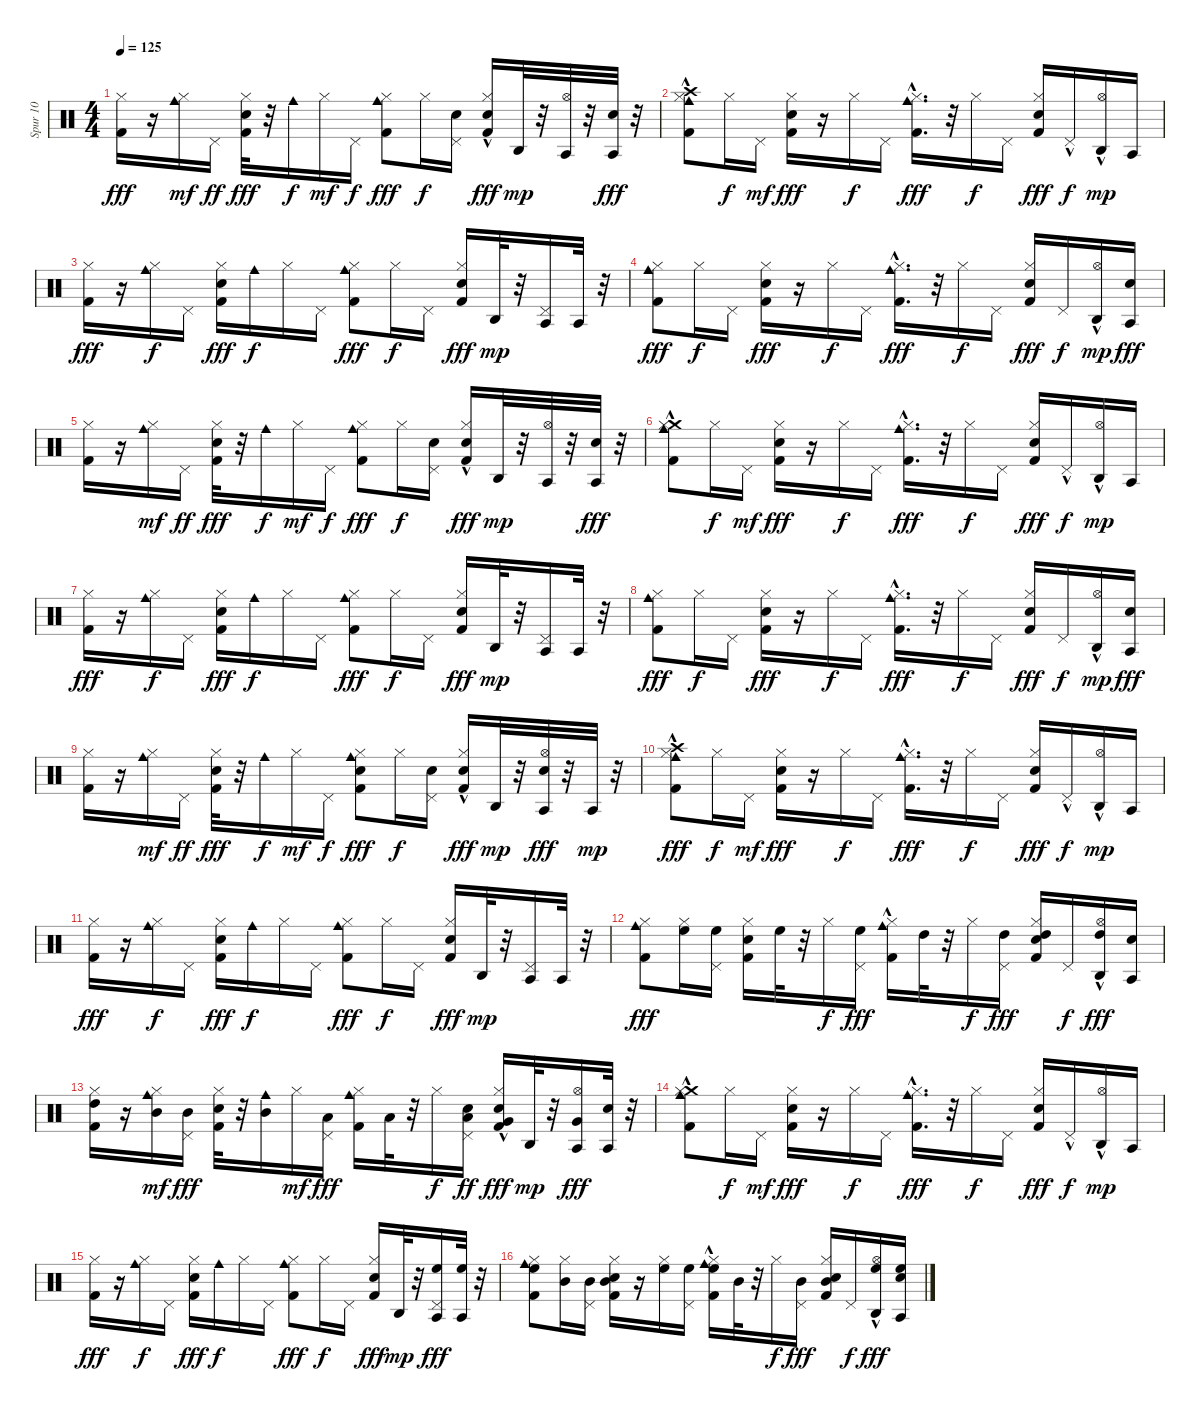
\track ("Spur 10" "Spur 10") {instrument percussion}
\staff {score}
\articulation defaults
\ts (4 4)
\tempo 125
\clef neutral
\ks c
("Kick (hit) 2" "Hi-Hat (closed)").16{dy fff} r.16 ("Cowbell medium (hit)" "Hi-Hat (closed)").16{dy mf} "Pedal Hi-Hat (hit)".16{dy ff} ("Electric Snare (hit)" "Kick (hit) 2" "Hi-Hat (closed)").32{dy fff} r.32 "Cowbell medium (hit)".16{dy f} "Hi-Hat (closed)".16{dy mf} "Pedal Hi-Hat (hit)".16{dy f} ("Cowbell medium (hit)" "Hi-Hat (closed)" "Kick (hit) 2").8{dy fff} "Hi-Hat (closed)".16{dy f} ("Pedal Hi-Hat (hit)" "Electric Snare (hit)").16 ("Hi-Hat (closed)" "Kick (hit) 2"{hac} "Electric Snare (hit)").16{dy fff} "Agogo high (hit)".32{dy mp} r.32 ("Agogo tow (hit)" "Hi-Hat (open)").32 r.32 ("Agogo tow (hit)" "Electric Snare (hit)").32{dy fff} r.32 |
("Cowbell medium (hit)" "Crash high (hit)"{hac} "Hi-Hat (closed)" "Kick (hit) 2").8 "Hi-Hat (closed)".16{dy f} "Pedal Hi-Hat (hit)".16{dy mf} ("Electric Snare (hit)" "Kick (hit) 2" "Hi-Hat (closed)").16{dy fff} r.16 "Hi-Hat (closed)".16{dy f} "Pedal Hi-Hat (hit)".16 ("Cowbell medium (hit)"{hac} "Kick (hit) 2" "Hi-Hat (closed)").16{d dy fff} r.32 "Hi-Hat (closed)".16{dy f} "Pedal Hi-Hat (hit)".16 ("Kick (hit) 2" "Electric Snare (hit)" "Hi-Hat (closed)").16{dy fff} "Pedal Hi-Hat (hit)"{hac}.16{dy f} ("Agogo high (hit)" "Hi-Hat (open)"{hac}).16{dy mp} "Agogo tow (hit)".16 |
("Kick (hit) 2" "Hi-Hat (closed)").16{dy fff} r.16 ("Cowbell medium (hit)" "Hi-Hat (closed)").16{dy f} "Pedal Hi-Hat (hit)".16 ("Hi-Hat (closed)" "Kick (hit) 2" "Electric Snare (hit)").16{dy fff} "Cowbell medium (hit)".16{dy f} "Hi-Hat (closed)".16 "Pedal Hi-Hat (hit)".16 ("Cowbell medium (hit)" "Kick (hit) 2" "Hi-Hat (closed)").8{dy fff} "Hi-Hat (closed)".16{dy f} "Pedal Hi-Hat (hit)".16 ("Electric Snare (hit)" "Kick (hit) 2" "Hi-Hat (closed)").16{dy fff} "Agogo high (hit)".32{dy mp} r.32 ("Agogo tow (hit)" "Pedal Hi-Hat (hit)").16 "Agogo tow (hit)".32 r.32 |
("Cowbell medium (hit)" "Kick (hit) 2" "Hi-Hat (closed)").8{dy fff} "Hi-Hat (closed)".16{dy f} "Pedal Hi-Hat (hit)".16 ("Electric Snare (hit)" "Kick (hit) 2" "Hi-Hat (closed)").16{dy fff} r.16 "Hi-Hat (closed)".16{dy f} "Pedal Hi-Hat (hit)".16 ("Cowbell medium (hit)"{hac} "Hi-Hat (closed)" "Kick (hit) 2").16{d dy fff} r.32 "Hi-Hat (closed)".16{dy f} "Pedal Hi-Hat (hit)".16 ("Kick (hit) 2" "Electric Snare (hit)" "Hi-Hat (closed)").16{dy fff} "Pedal Hi-Hat (hit)".16{dy f} ("Agogo high (hit)" "Hi-Hat (open)"{hac}).16{dy mp} ("Agogo tow (hit)" "Electric Snare (hit)").16{dy fff} |
("Kick (hit) 2" "Hi-Hat (closed)").16 r.16 ("Cowbell medium (hit)" "Hi-Hat (closed)").16{dy mf} "Pedal Hi-Hat (hit)".16{dy ff} ("Electric Snare (hit)" "Kick (hit) 2" "Hi-Hat (closed)").32{dy fff} r.32 "Cowbell medium (hit)".16{dy f} "Hi-Hat (closed)".16{dy mf} "Pedal Hi-Hat (hit)".16{dy f} ("Cowbell medium (hit)" "Hi-Hat (closed)" "Kick (hit) 2").8{dy fff} "Hi-Hat (closed)".16{dy f} ("Pedal Hi-Hat (hit)" "Electric Snare (hit)").16 ("Hi-Hat (closed)" "Kick (hit) 2"{hac} "Electric Snare (hit)").16{dy fff} "Agogo high (hit)".32{dy mp} r.32 ("Agogo tow (hit)" "Hi-Hat (open)").32 r.32 ("Agogo tow (hit)" "Electric Snare (hit)").32{dy fff} r.32 |
("Cowbell medium (hit)" "Crash medium (hit)"{hac} "Hi-Hat (closed)" "Kick (hit) 2").8 "Hi-Hat (closed)".16{dy f} "Pedal Hi-Hat (hit)".16{dy mf} ("Electric Snare (hit)" "Kick (hit) 2" "Hi-Hat (closed)").16{dy fff} r.16 "Hi-Hat (closed)".16{dy f} "Pedal Hi-Hat (hit)".16 ("Cowbell medium (hit)"{hac} "Kick (hit) 2" "Hi-Hat (closed)").16{d dy fff} r.32 "Hi-Hat (closed)".16{dy f} "Pedal Hi-Hat (hit)".16 ("Kick (hit) 2" "Electric Snare (hit)" "Hi-Hat (closed)").16{dy fff} "Pedal Hi-Hat (hit)"{hac}.16{dy f} ("Agogo high (hit)" "Hi-Hat (open)"{hac}).16{dy mp} "Agogo tow (hit)".16 |
("Kick (hit) 2" "Hi-Hat (closed)").16{dy fff} r.16 ("Cowbell medium (hit)" "Hi-Hat (closed)").16{dy f} "Pedal Hi-Hat (hit)".16 ("Hi-Hat (closed)" "Kick (hit) 2" "Electric Snare (hit)").16{dy fff} "Cowbell medium (hit)".16{dy f} "Hi-Hat (closed)".16 "Pedal Hi-Hat (hit)".16 ("Cowbell medium (hit)" "Kick (hit) 2" "Hi-Hat (closed)").8{dy fff} "Hi-Hat (closed)".16{dy f} "Pedal Hi-Hat (hit)".16 ("Electric Snare (hit)" "Kick (hit) 2" "Hi-Hat (closed)").16{dy fff} "Agogo high (hit)".32{dy mp} r.32 ("Agogo tow (hit)" "Pedal Hi-Hat (hit)").16 "Agogo tow (hit)".32 r.32 |
("Cowbell medium (hit)" "Kick (hit) 2" "Hi-Hat (closed)").8{dy fff} "Hi-Hat (closed)".16{dy f} "Pedal Hi-Hat (hit)".16 ("Electric Snare (hit)" "Kick (hit) 2" "Hi-Hat (closed)").16{dy fff} r.16 "Hi-Hat (closed)".16{dy f} "Pedal Hi-Hat (hit)".16 ("Cowbell medium (hit)"{hac} "Hi-Hat (closed)" "Kick (hit) 2").16{d dy fff} r.32 "Hi-Hat (closed)".16{dy f} "Pedal Hi-Hat (hit)".16 ("Kick (hit) 2" "Electric Snare (hit)" "Hi-Hat (closed)").16{dy fff} "Pedal Hi-Hat (hit)".16{dy f} ("Agogo high (hit)" "Hi-Hat (open)"{hac}).16{dy mp} ("Agogo tow (hit)" "Electric Snare (hit)").16{dy fff} |
("Kick (hit) 2" "Hi-Hat (closed)").16 r.16 ("Cowbell medium (hit)" "Hi-Hat (closed)").16{dy mf} "Pedal Hi-Hat (hit)".16{dy ff} ("Electric Snare (hit)" "Kick (hit) 2" "Hi-Hat (closed)").32{dy fff} r.32 "Cowbell medium (hit)".16{dy f} "Hi-Hat (closed)".16{dy mf} "Pedal Hi-Hat (hit)".16{dy f} ("Cowbell medium (hit)" "Electric Snare (hit)" "Hi-Hat (closed)" "Kick (hit) 2").8{dy fff} "Hi-Hat (closed)".16{dy f} ("Pedal Hi-Hat (hit)" "Electric Snare (hit)").16 ("Hi-Hat (closed)" "Kick (hit) 2"{hac} "Electric Snare (hit)").16{dy fff} "Agogo high (hit)".32{dy mp} r.32 ("Agogo tow (hit)" "Electric Snare (hit)" "Hi-Hat (open)").32{dy fff} r.32 "Agogo tow (hit)".32{dy mp} r.32 |
("Cowbell medium (hit)" "Crash high (hit)"{hac} "Hi-Hat (closed)" "Kick (hit) 2").8{dy fff} "Hi-Hat (closed)".16{dy f} "Pedal Hi-Hat (hit)".16{dy mf} ("Electric Snare (hit)" "Kick (hit) 2" "Hi-Hat (closed)").16{dy fff} r.16 "Hi-Hat (closed)".16{dy f} "Pedal Hi-Hat (hit)".16 ("Cowbell medium (hit)"{hac} "Kick (hit) 2" "Hi-Hat (closed)").16{d dy fff} r.32 "Hi-Hat (closed)".16{dy f} "Pedal Hi-Hat (hit)".16 ("Kick (hit) 2" "Electric Snare (hit)" "Hi-Hat (closed)").16{dy fff} "Pedal Hi-Hat (hit)"{hac}.16{dy f} ("Agogo high (hit)" "Hi-Hat (open)"{hac}).16{dy mp} "Agogo tow (hit)".16 |
("Kick (hit) 2" "Hi-Hat (closed)").16{dy fff} r.16 ("Cowbell medium (hit)" "Hi-Hat (closed)").16{dy f} "Pedal Hi-Hat (hit)".16 ("Hi-Hat (closed)" "Kick (hit) 2" "Electric Snare (hit)").16{dy fff} "Cowbell medium (hit)".16{dy f} "Hi-Hat (closed)".16 "Pedal Hi-Hat (hit)".16 ("Cowbell medium (hit)" "Kick (hit) 2" "Hi-Hat (closed)").8{dy fff} "Hi-Hat (closed)".16{dy f} "Pedal Hi-Hat (hit)".16 ("Electric Snare (hit)" "Kick (hit) 2" "Hi-Hat (closed)").16{dy fff} "Agogo high (hit)".32{dy mp} r.32 ("Agogo tow (hit)" "Pedal Hi-Hat (hit)").16 "Agogo tow (hit)".32 r.32 |
("Cowbell medium (hit)" "Kick (hit) 2" "Hi-Hat (closed)").8{dy fff} ("Hi-Hat (closed)" "High Floor Tom (hit)").16 ("High Floor Tom (hit)" "Pedal Hi-Hat (hit)").16 ("Electric Snare (hit)" "Kick (hit) 2" "Hi-Hat (closed)").16 "High Floor Tom (hit)".32 r.32 "Hi-Hat (closed)".16{dy f} ("High Floor Tom (hit)" "Pedal Hi-Hat (hit)").16{dy fff} ("Cowbell medium (hit)"{hac} "Hi-Hat (closed)" "Kick (hit) 2").16 "High Tom (hit)".32 r.32 "Hi-Hat (closed)".16{dy f} ("High Tom (hit)" "Pedal Hi-Hat (hit)").16{dy fff} ("High Tom (hit)" "Kick (hit) 2" "Electric Snare (hit)" "Hi-Hat (closed)").16 "Pedal Hi-Hat (hit)".16{dy f} ("Agogo high (hit)" "Hi-Hat (open)"{hac} "High Tom (hit)").16{dy fff} ("Agogo tow (hit)" "Electric Snare (hit)").16 |
("High Tom (hit)" "Kick (hit) 2" "Hi-Hat (closed)").16 r.16 ("Cowbell medium (hit)" "Mid Tom (hit)" "Hi-Hat (closed)").16{dy mf} ("Pedal Hi-Hat (hit)" "Mid Tom (hit)").16{dy fff} ("Electric Snare (hit)" "Kick (hit) 2" "Hi-Hat (closed)").32 r.32 ("Cowbell medium (hit)" "Mid Tom (hit)").16 "Hi-Hat (closed)".16{dy mf} ("Pedal Hi-Hat (hit)" "Low Tom (hit)").16{dy fff} ("Cowbell medium (hit)" "Hi-Hat (closed)" "Kick (hit) 2").16 "Low Tom (hit)".32 r.32 "Hi-Hat (closed)".16{dy f} ("Low Tom (hit)" "Pedal Hi-Hat (hit)" "Electric Snare (hit)").16{dy ff} ("Very Low Tom (hit)" "Hi-Hat (closed)" "Kick (hit) 2"{hac} "Electric Snare (hit)").16{dy fff} "Agogo high (hit)".32{dy mp} r.32 ("Agogo tow (hit)" "Very Low Tom (hit)" "Hi-Hat (open)").16{dy fff} ("Agogo tow (hit)" "Electric Snare (hit)").32 r.32 |
("Cowbell medium (hit)" "Crash medium (hit)"{hac} "Hi-Hat (closed)" "Kick (hit) 2").8 "Hi-Hat (closed)".16{dy f} "Pedal Hi-Hat (hit)".16{dy mf} ("Electric Snare (hit)" "Kick (hit) 2" "Hi-Hat (closed)").16{dy fff} r.16 "Hi-Hat (closed)".16{dy f} "Pedal Hi-Hat (hit)".16 ("Cowbell medium (hit)"{hac} "Kick (hit) 2" "Hi-Hat (closed)").16{d dy fff} r.32 "Hi-Hat (closed)".16{dy f} "Pedal Hi-Hat (hit)".16 ("Kick (hit) 2" "Electric Snare (hit)" "Hi-Hat (closed)").16{dy fff} "Pedal Hi-Hat (hit)"{hac}.16{dy f} ("Agogo high (hit)" "Hi-Hat (open)"{hac}).16{dy mp} "Agogo tow (hit)".16 |
("Kick (hit) 2" "Hi-Hat (closed)").16{dy fff} r.16 ("Cowbell medium (hit)" "Hi-Hat (closed)").16{dy f} "Pedal Hi-Hat (hit)".16 ("Hi-Hat (closed)" "Kick (hit) 2" "Electric Snare (hit)").16{dy fff} "Cowbell medium (hit)".16{dy f} "Hi-Hat (closed)".16 "Pedal Hi-Hat (hit)".16 ("Cowbell medium (hit)" "Kick (hit) 2" "Hi-Hat (closed)").8{dy fff} "Hi-Hat (closed)".16{dy f} "Pedal Hi-Hat (hit)".16 ("Electric Snare (hit)" "Kick (hit) 2" "Hi-Hat (closed)").16{dy fff} "Agogo high (hit)".32{dy mp} r.32 ("Agogo tow (hit)" "Pedal Hi-Hat (hit)" "High Floor Tom (hit)").16{dy fff} ("Agogo tow (hit)" "High Floor Tom (hit)").32 r.32 |
("Cowbell medium (hit)" "Kick (hit) 2" "Hi-Hat (closed)" "High Floor Tom (hit)").8 ("Mid Tom (hit)" "Hi-Hat (closed)").16 ("Pedal Hi-Hat (hit)" "Mid Tom (hit)").16 ("Mid Tom (hit)" "Electric Snare (hit)" "Kick (hit) 2" "Hi-Hat (closed)").16 r.16 ("High Floor Tom (hit)" "Hi-Hat (closed)").16 ("High Floor Tom (hit)" "Pedal Hi-Hat (hit)").16 ("Cowbell medium (hit)"{hac} "High Floor Tom (hit)" "Hi-Hat (closed)" "Kick (hit) 2").16 "Mid Tom (hit)".32 r.32 "Hi-Hat (closed)".16{dy f} ("Pedal Hi-Hat (hit)" "Mid Tom (hit)").16{dy fff} ("Kick (hit) 2" "Electric Snare (hit)" "Hi-Hat (closed)" "Mid Tom (hit)").16 "Pedal Hi-Hat (hit)".16{dy f} ("Agogo high (hit)" "High Floor Tom (hit)" "Hi-Hat (open)"{hac}).16{dy fff} ("Agogo tow (hit)" "High Floor Tom (hit)" "Electric Snare (hit)").16
